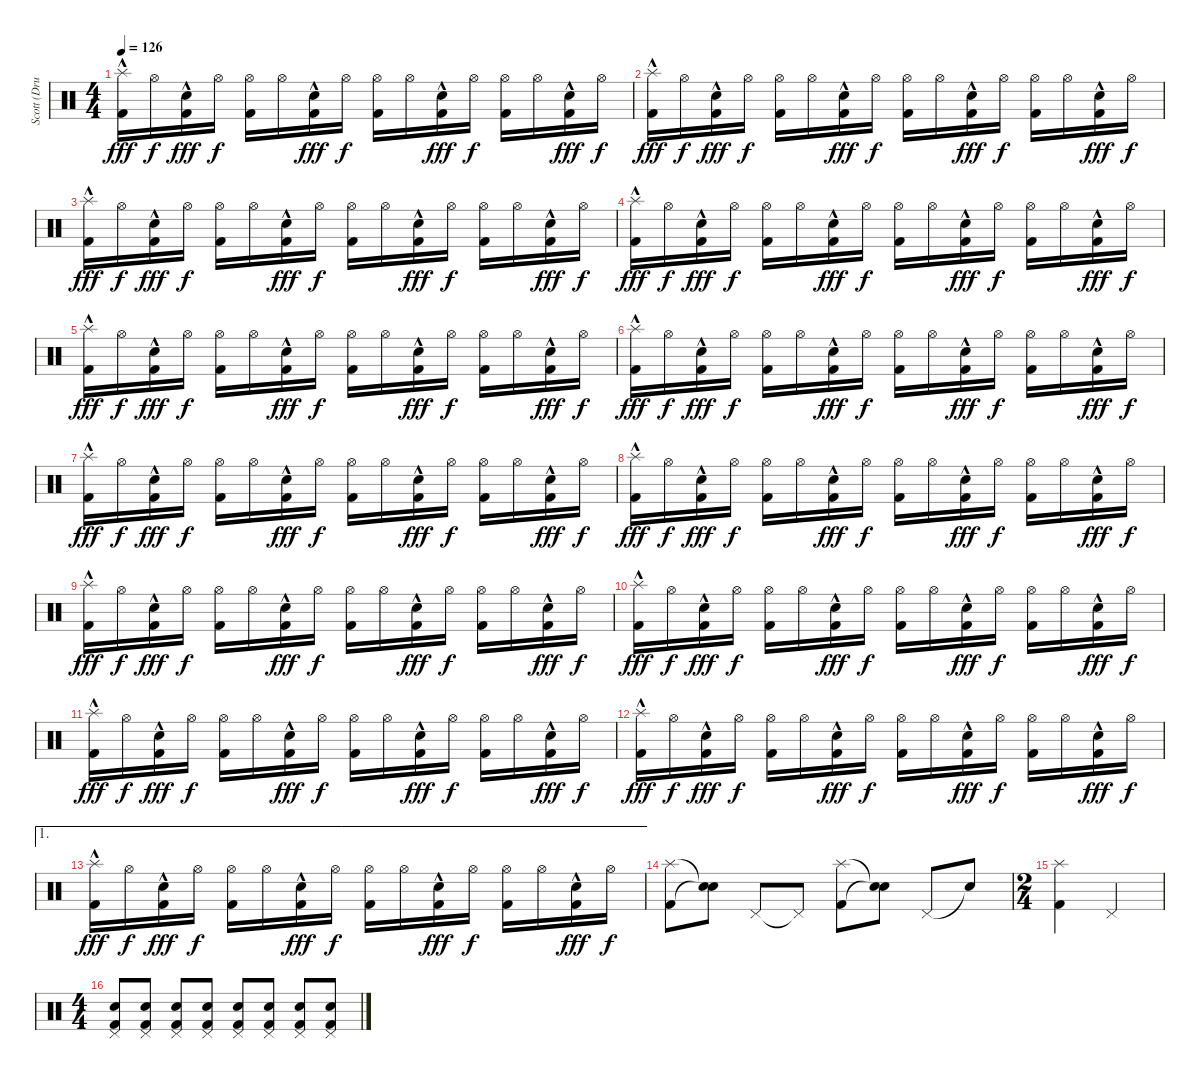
\track ("Scott (Drums)" "Scott (Dru") {instrument percussion}
\staff {score}
\articulation defaults
\ts (4 4)
\tempo 126
\clef neutral
\ks c
("Splash (hit)"{hac} "Kick (hit) 2").16{dy fff} "Hi-Hat (open)".16{dy f} ("Electric Snare (hit)"{hac} "Kick (hit) 2").16{dy fff} "Hi-Hat (open)".16{dy f} ("Hi-Hat (open)" "Kick (hit) 2").16 "Hi-Hat (open)".16 ("Electric Snare (hit)"{hac} "Kick (hit) 2").16{dy fff} "Hi-Hat (open)".16{dy f} ("Hi-Hat (open)" "Kick (hit) 2").16 "Hi-Hat (open)".16 ("Electric Snare (hit)"{hac} "Kick (hit) 2").16{dy fff} "Hi-Hat (open)".16{dy f} ("Hi-Hat (open)" "Kick (hit) 2").16 "Hi-Hat (open)".16 ("Electric Snare (hit)"{hac} "Kick (hit) 2").16{dy fff} "Hi-Hat (open)".16{dy f} |
("Splash (hit)"{hac} "Kick (hit) 2").16{dy fff} "Hi-Hat (open)".16{dy f} ("Electric Snare (hit)"{hac} "Kick (hit) 2").16{dy fff} "Hi-Hat (open)".16{dy f} ("Hi-Hat (open)" "Kick (hit) 2").16 "Hi-Hat (open)".16 ("Electric Snare (hit)"{hac} "Kick (hit) 2").16{dy fff} "Hi-Hat (open)".16{dy f} ("Hi-Hat (open)" "Kick (hit) 2").16 "Hi-Hat (open)".16 ("Electric Snare (hit)"{hac} "Kick (hit) 2").16{dy fff} "Hi-Hat (open)".16{dy f} ("Hi-Hat (open)" "Kick (hit) 2").16 "Hi-Hat (open)".16 ("Electric Snare (hit)"{hac} "Kick (hit) 2").16{dy fff} "Hi-Hat (open)".16{dy f} |
("Splash (hit)"{hac} "Kick (hit) 2").16{dy fff} "Hi-Hat (open)".16{dy f} ("Electric Snare (hit)"{hac} "Kick (hit) 2").16{dy fff} "Hi-Hat (open)".16{dy f} ("Hi-Hat (open)" "Kick (hit) 2").16 "Hi-Hat (open)".16 ("Electric Snare (hit)"{hac} "Kick (hit) 2").16{dy fff} "Hi-Hat (open)".16{dy f} ("Hi-Hat (open)" "Kick (hit) 2").16 "Hi-Hat (open)".16 ("Electric Snare (hit)"{hac} "Kick (hit) 2").16{dy fff} "Hi-Hat (open)".16{dy f} ("Hi-Hat (open)" "Kick (hit) 2").16 "Hi-Hat (open)".16 ("Electric Snare (hit)"{hac} "Kick (hit) 2").16{dy fff} "Hi-Hat (open)".16{dy f} |
("Splash (hit)"{hac} "Kick (hit) 2").16{dy fff} "Hi-Hat (open)".16{dy f} ("Electric Snare (hit)"{hac} "Kick (hit) 2").16{dy fff} "Hi-Hat (open)".16{dy f} ("Hi-Hat (open)" "Kick (hit) 2").16 "Hi-Hat (open)".16 ("Electric Snare (hit)"{hac} "Kick (hit) 2").16{dy fff} "Hi-Hat (open)".16{dy f} ("Hi-Hat (open)" "Kick (hit) 2").16 "Hi-Hat (open)".16 ("Electric Snare (hit)"{hac} "Kick (hit) 2").16{dy fff} "Hi-Hat (open)".16{dy f} ("Hi-Hat (open)" "Kick (hit) 2").16 "Hi-Hat (open)".16 ("Electric Snare (hit)"{hac} "Kick (hit) 2").16{dy fff} "Hi-Hat (open)".16{dy f} |
("Splash (hit)"{hac} "Kick (hit) 2").16{dy fff} "Hi-Hat (open)".16{dy f} ("Electric Snare (hit)"{hac} "Kick (hit) 2").16{dy fff} "Hi-Hat (open)".16{dy f} ("Hi-Hat (open)" "Kick (hit) 2").16 "Hi-Hat (open)".16 ("Electric Snare (hit)"{hac} "Kick (hit) 2").16{dy fff} "Hi-Hat (open)".16{dy f} ("Hi-Hat (open)" "Kick (hit) 2").16 "Hi-Hat (open)".16 ("Electric Snare (hit)"{hac} "Kick (hit) 2").16{dy fff} "Hi-Hat (open)".16{dy f} ("Hi-Hat (open)" "Kick (hit) 2").16 "Hi-Hat (open)".16 ("Electric Snare (hit)"{hac} "Kick (hit) 2").16{dy fff} "Hi-Hat (open)".16{dy f} |
("Splash (hit)"{hac} "Kick (hit) 2").16{dy fff} "Hi-Hat (open)".16{dy f} ("Electric Snare (hit)"{hac} "Kick (hit) 2").16{dy fff} "Hi-Hat (open)".16{dy f} ("Hi-Hat (open)" "Kick (hit) 2").16 "Hi-Hat (open)".16 ("Electric Snare (hit)"{hac} "Kick (hit) 2").16{dy fff} "Hi-Hat (open)".16{dy f} ("Hi-Hat (open)" "Kick (hit) 2").16 "Hi-Hat (open)".16 ("Electric Snare (hit)"{hac} "Kick (hit) 2").16{dy fff} "Hi-Hat (open)".16{dy f} ("Hi-Hat (open)" "Kick (hit) 2").16 "Hi-Hat (open)".16 ("Electric Snare (hit)"{hac} "Kick (hit) 2").16{dy fff} "Hi-Hat (open)".16{dy f} |
("Splash (hit)"{hac} "Kick (hit) 2").16{dy fff} "Hi-Hat (open)".16{dy f} ("Electric Snare (hit)"{hac} "Kick (hit) 2").16{dy fff} "Hi-Hat (open)".16{dy f} ("Hi-Hat (open)" "Kick (hit) 2").16 "Hi-Hat (open)".16 ("Electric Snare (hit)"{hac} "Kick (hit) 2").16{dy fff} "Hi-Hat (open)".16{dy f} ("Hi-Hat (open)" "Kick (hit) 2").16 "Hi-Hat (open)".16 ("Electric Snare (hit)"{hac} "Kick (hit) 2").16{dy fff} "Hi-Hat (open)".16{dy f} ("Hi-Hat (open)" "Kick (hit) 2").16 "Hi-Hat (open)".16 ("Electric Snare (hit)"{hac} "Kick (hit) 2").16{dy fff} "Hi-Hat (open)".16{dy f} |
("Splash (hit)"{hac} "Kick (hit) 2").16{dy fff} "Hi-Hat (open)".16{dy f} ("Electric Snare (hit)"{hac} "Kick (hit) 2").16{dy fff} "Hi-Hat (open)".16{dy f} ("Hi-Hat (open)" "Kick (hit) 2").16 "Hi-Hat (open)".16 ("Electric Snare (hit)"{hac} "Kick (hit) 2").16{dy fff} "Hi-Hat (open)".16{dy f} ("Hi-Hat (open)" "Kick (hit) 2").16 "Hi-Hat (open)".16 ("Electric Snare (hit)"{hac} "Kick (hit) 2").16{dy fff} "Hi-Hat (open)".16{dy f} ("Hi-Hat (open)" "Kick (hit) 2").16 "Hi-Hat (open)".16 ("Electric Snare (hit)"{hac} "Kick (hit) 2").16{dy fff} "Hi-Hat (open)".16{dy f} |
("Splash (hit)"{hac} "Kick (hit) 2").16{dy fff} "Hi-Hat (open)".16{dy f} ("Electric Snare (hit)"{hac} "Kick (hit) 2").16{dy fff} "Hi-Hat (open)".16{dy f} ("Hi-Hat (open)" "Kick (hit) 2").16 "Hi-Hat (open)".16 ("Electric Snare (hit)"{hac} "Kick (hit) 2").16{dy fff} "Hi-Hat (open)".16{dy f} ("Hi-Hat (open)" "Kick (hit) 2").16 "Hi-Hat (open)".16 ("Electric Snare (hit)"{hac} "Kick (hit) 2").16{dy fff} "Hi-Hat (open)".16{dy f} ("Hi-Hat (open)" "Kick (hit) 2").16 "Hi-Hat (open)".16 ("Electric Snare (hit)"{hac} "Kick (hit) 2").16{dy fff} "Hi-Hat (open)".16{dy f} |
("Splash (hit)"{hac} "Kick (hit) 2").16{dy fff} "Hi-Hat (open)".16{dy f} ("Electric Snare (hit)"{hac} "Kick (hit) 2").16{dy fff} "Hi-Hat (open)".16{dy f} ("Hi-Hat (open)" "Kick (hit) 2").16 "Hi-Hat (open)".16 ("Electric Snare (hit)"{hac} "Kick (hit) 2").16{dy fff} "Hi-Hat (open)".16{dy f} ("Hi-Hat (open)" "Kick (hit) 2").16 "Hi-Hat (open)".16 ("Electric Snare (hit)"{hac} "Kick (hit) 2").16{dy fff} "Hi-Hat (open)".16{dy f} ("Hi-Hat (open)" "Kick (hit) 2").16 "Hi-Hat (open)".16 ("Electric Snare (hit)"{hac} "Kick (hit) 2").16{dy fff} "Hi-Hat (open)".16{dy f} |
("Splash (hit)"{hac} "Kick (hit) 2").16{dy fff} "Hi-Hat (open)".16{dy f} ("Electric Snare (hit)"{hac} "Kick (hit) 2").16{dy fff} "Hi-Hat (open)".16{dy f} ("Hi-Hat (open)" "Kick (hit) 2").16 "Hi-Hat (open)".16 ("Electric Snare (hit)"{hac} "Kick (hit) 2").16{dy fff} "Hi-Hat (open)".16{dy f} ("Hi-Hat (open)" "Kick (hit) 2").16 "Hi-Hat (open)".16 ("Electric Snare (hit)"{hac} "Kick (hit) 2").16{dy fff} "Hi-Hat (open)".16{dy f} ("Hi-Hat (open)" "Kick (hit) 2").16 "Hi-Hat (open)".16 ("Electric Snare (hit)"{hac} "Kick (hit) 2").16{dy fff} "Hi-Hat (open)".16{dy f} |
("Splash (hit)"{hac} "Kick (hit) 2").16{dy fff} "Hi-Hat (open)".16{dy f} ("Electric Snare (hit)"{hac} "Kick (hit) 2").16{dy fff} "Hi-Hat (open)".16{dy f} ("Hi-Hat (open)" "Kick (hit) 2").16 "Hi-Hat (open)".16 ("Electric Snare (hit)"{hac} "Kick (hit) 2").16{dy fff} "Hi-Hat (open)".16{dy f} ("Hi-Hat (open)" "Kick (hit) 2").16 "Hi-Hat (open)".16 ("Electric Snare (hit)"{hac} "Kick (hit) 2").16{dy fff} "Hi-Hat (open)".16{dy f} ("Hi-Hat (open)" "Kick (hit) 2").16 "Hi-Hat (open)".16 ("Electric Snare (hit)"{hac} "Kick (hit) 2").16{dy fff} "Hi-Hat (open)".16{dy f} |
\ae 1
("Splash (hit)"{hac} "Kick (hit) 2").16{dy fff} "Hi-Hat (open)".16{dy f} ("Electric Snare (hit)"{hac} "Kick (hit) 2").16{dy fff} "Hi-Hat (open)".16{dy f} ("Hi-Hat (open)" "Kick (hit) 2").16 "Hi-Hat (open)".16 ("Electric Snare (hit)"{hac} "Kick (hit) 2").16{dy fff} "Hi-Hat (open)".16{dy f} ("Hi-Hat (open)" "Kick (hit) 2").16 "Hi-Hat (open)".16 ("Electric Snare (hit)"{hac} "Kick (hit) 2").16{dy fff} "Hi-Hat (open)".16{dy f} ("Hi-Hat (open)" "Kick (hit) 2").16 "Hi-Hat (open)".16 ("Electric Snare (hit)"{hac} "Kick (hit) 2").16{dy fff} "Hi-Hat (open)".16{dy f} |
("Splash (hit)" "Kick (hit) 2").8 ("Snare (hit)"{t} "Snare (hit)"{t}).8 "Pedal Hi-Hat (hit)".8 "Pedal Hi-Hat (hit)"{t}.8 ("Splash (hit)" "Kick (hit) 2").8 ("Snare (hit)"{t} "Snare (hit)"{t}).8 "Pedal Hi-Hat (hit)".8 "Snare (hit)"{t}.8 |
\ts (2 4)
("Splash (hit)" "Kick (hit) 2").4 "Pedal Hi-Hat (hit)".4 |
\ts (4 4)
("Pedal Hi-Hat (hit)" "Electric Snare (hit)" "Kick (hit) 2").8{volume 6} ("Pedal Hi-Hat (hit)" "Electric Snare (hit)" "Kick (hit) 2").8 ("Pedal Hi-Hat (hit)" "Electric Snare (hit)" "Kick (hit) 2").8{volume 7} ("Pedal Hi-Hat (hit)" "Electric Snare (hit)" "Kick (hit) 2").8 ("Pedal Hi-Hat (hit)" "Electric Snare (hit)" "Kick (hit) 2").8{volume 8} ("Pedal Hi-Hat (hit)" "Electric Snare (hit)" "Kick (hit) 2").8 ("Pedal Hi-Hat (hit)" "Electric Snare (hit)" "Kick (hit) 2").8{volume 10} ("Pedal Hi-Hat (hit)" "Electric Snare (hit)" "Kick (hit) 2").8
